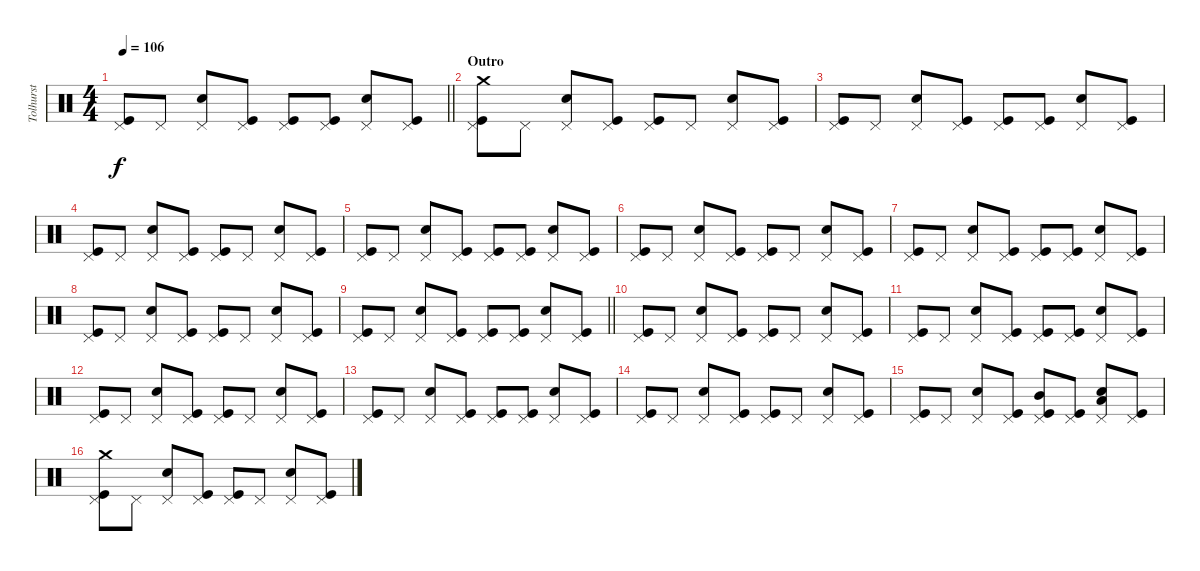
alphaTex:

\track ("Tolhurst" "Tolhurst") {instrument percussion}
\staff {score}
\articulation defaults
\ts (4 4)
\tempo 106
\clef neutral
\barLineRight lightlight
\ks c
("Pedal Hi-Hat (hit)" "Kick (hit)").8{dy f} "Pedal Hi-Hat (hit)".8 ("Pedal Hi-Hat (hit)" "Snare (hit) 2").8 ("Pedal Hi-Hat (hit)" "Kick (hit)").8 ("Pedal Hi-Hat (hit)" "Kick (hit)").8 ("Pedal Hi-Hat (hit)" "Kick (hit)").8 ("Pedal Hi-Hat (hit)" "Snare (hit) 2").8 ("Pedal Hi-Hat (hit)" "Kick (hit)").8 |
\section ("" "Outro")
("Crash medium (hit)" "Pedal Hi-Hat (hit)" "Kick (hit)").8 "Pedal Hi-Hat (hit)".8 ("Pedal Hi-Hat (hit)" "Snare (hit) 2").8 ("Pedal Hi-Hat (hit)" "Kick (hit)").8 ("Pedal Hi-Hat (hit)" "Kick (hit)").8 "Pedal Hi-Hat (hit)".8 ("Pedal Hi-Hat (hit)" "Snare (hit) 2").8 ("Pedal Hi-Hat (hit)" "Kick (hit)").8 |
("Pedal Hi-Hat (hit)" "Kick (hit)").8 "Pedal Hi-Hat (hit)".8 ("Pedal Hi-Hat (hit)" "Snare (hit) 2").8 ("Pedal Hi-Hat (hit)" "Kick (hit)").8 ("Pedal Hi-Hat (hit)" "Kick (hit)").8 ("Pedal Hi-Hat (hit)" "Kick (hit)").8 ("Pedal Hi-Hat (hit)" "Snare (hit) 2").8 ("Pedal Hi-Hat (hit)" "Kick (hit)").8 |
("Pedal Hi-Hat (hit)" "Kick (hit)").8 "Pedal Hi-Hat (hit)".8 ("Pedal Hi-Hat (hit)" "Snare (hit) 2").8 ("Pedal Hi-Hat (hit)" "Kick (hit)").8 ("Pedal Hi-Hat (hit)" "Kick (hit)").8 "Pedal Hi-Hat (hit)".8 ("Pedal Hi-Hat (hit)" "Snare (hit) 2").8 ("Pedal Hi-Hat (hit)" "Kick (hit)").8 |
("Pedal Hi-Hat (hit)" "Kick (hit)").8 "Pedal Hi-Hat (hit)".8 ("Pedal Hi-Hat (hit)" "Snare (hit) 2").8 ("Pedal Hi-Hat (hit)" "Kick (hit)").8 ("Pedal Hi-Hat (hit)" "Kick (hit)").8 ("Pedal Hi-Hat (hit)" "Kick (hit)").8 ("Pedal Hi-Hat (hit)" "Snare (hit) 2").8 ("Pedal Hi-Hat (hit)" "Kick (hit)").8 |
("Pedal Hi-Hat (hit)" "Kick (hit)").8 "Pedal Hi-Hat (hit)".8 ("Pedal Hi-Hat (hit)" "Snare (hit) 2").8 ("Pedal Hi-Hat (hit)" "Kick (hit)").8 ("Pedal Hi-Hat (hit)" "Kick (hit)").8 "Pedal Hi-Hat (hit)".8 ("Pedal Hi-Hat (hit)" "Snare (hit) 2").8 ("Pedal Hi-Hat (hit)" "Kick (hit)").8 |
("Pedal Hi-Hat (hit)" "Kick (hit)").8 "Pedal Hi-Hat (hit)".8 ("Pedal Hi-Hat (hit)" "Snare (hit) 2").8 ("Pedal Hi-Hat (hit)" "Kick (hit)").8 ("Pedal Hi-Hat (hit)" "Kick (hit)").8 ("Pedal Hi-Hat (hit)" "Kick (hit)").8 ("Pedal Hi-Hat (hit)" "Snare (hit) 2").8 ("Pedal Hi-Hat (hit)" "Kick (hit)").8 |
("Pedal Hi-Hat (hit)" "Kick (hit)").8 "Pedal Hi-Hat (hit)".8 ("Pedal Hi-Hat (hit)" "Snare (hit) 2").8 ("Pedal Hi-Hat (hit)" "Kick (hit)").8 ("Pedal Hi-Hat (hit)" "Kick (hit)").8 "Pedal Hi-Hat (hit)".8 ("Pedal Hi-Hat (hit)" "Snare (hit) 2").8 ("Pedal Hi-Hat (hit)" "Kick (hit)").8 |
\barLineRight lightlight
("Pedal Hi-Hat (hit)" "Kick (hit)").8 "Pedal Hi-Hat (hit)".8 ("Pedal Hi-Hat (hit)" "Snare (hit) 2").8 ("Pedal Hi-Hat (hit)" "Kick (hit)").8 ("Pedal Hi-Hat (hit)" "Kick (hit)").8 ("Pedal Hi-Hat (hit)" "Kick (hit)").8 ("Pedal Hi-Hat (hit)" "Snare (hit) 2").8 ("Pedal Hi-Hat (hit)" "Kick (hit)").8 |
("Pedal Hi-Hat (hit)" "Kick (hit)").8 "Pedal Hi-Hat (hit)".8 ("Pedal Hi-Hat (hit)" "Snare (hit) 2").8 ("Pedal Hi-Hat (hit)" "Kick (hit)").8 ("Pedal Hi-Hat (hit)" "Kick (hit)").8 "Pedal Hi-Hat (hit)".8 ("Pedal Hi-Hat (hit)" "Snare (hit) 2").8 ("Pedal Hi-Hat (hit)" "Kick (hit)").8 |
("Pedal Hi-Hat (hit)" "Kick (hit)").8 "Pedal Hi-Hat (hit)".8 ("Pedal Hi-Hat (hit)" "Snare (hit) 2").8 ("Pedal Hi-Hat (hit)" "Kick (hit)").8 ("Pedal Hi-Hat (hit)" "Kick (hit)").8 ("Pedal Hi-Hat (hit)" "Kick (hit)").8 ("Pedal Hi-Hat (hit)" "Snare (hit) 2").8 ("Pedal Hi-Hat (hit)" "Kick (hit)").8 |
("Pedal Hi-Hat (hit)" "Kick (hit)").8 "Pedal Hi-Hat (hit)".8 ("Pedal Hi-Hat (hit)" "Snare (hit) 2").8 ("Pedal Hi-Hat (hit)" "Kick (hit)").8 ("Pedal Hi-Hat (hit)" "Kick (hit)").8 "Pedal Hi-Hat (hit)".8 ("Pedal Hi-Hat (hit)" "Snare (hit) 2").8 ("Pedal Hi-Hat (hit)" "Kick (hit)").8 |
("Pedal Hi-Hat (hit)" "Kick (hit)").8 "Pedal Hi-Hat (hit)".8 ("Pedal Hi-Hat (hit)" "Snare (hit) 2").8 ("Pedal Hi-Hat (hit)" "Kick (hit)").8 ("Pedal Hi-Hat (hit)" "Kick (hit)").8 ("Pedal Hi-Hat (hit)" "Kick (hit)").8 ("Pedal Hi-Hat (hit)" "Snare (hit) 2").8 ("Pedal Hi-Hat (hit)" "Kick (hit)").8 |
("Pedal Hi-Hat (hit)" "Kick (hit)").8 "Pedal Hi-Hat (hit)".8 ("Pedal Hi-Hat (hit)" "Snare (hit) 2").8 ("Pedal Hi-Hat (hit)" "Kick (hit)").8 ("Pedal Hi-Hat (hit)" "Kick (hit)").8 "Pedal Hi-Hat (hit)".8 ("Pedal Hi-Hat (hit)" "Snare (hit) 2").8 ("Pedal Hi-Hat (hit)" "Kick (hit)").8 |
("Pedal Hi-Hat (hit)" "Kick (hit)").8 "Pedal Hi-Hat (hit)".8 ("Pedal Hi-Hat (hit)" "Snare (hit) 2").8 ("Pedal Hi-Hat (hit)" "Kick (hit)").8 ("Mid Tom (hit)" "Pedal Hi-Hat (hit)" "Kick (hit)").8 ("Pedal Hi-Hat (hit)" "Kick (hit)").8 ("Low Tom (hit)" "Pedal Hi-Hat (hit)" "Snare (hit) 2").8 ("Pedal Hi-Hat (hit)" "Kick (hit)").8 |
("Crash medium (hit)" "Pedal Hi-Hat (hit)" "Kick (hit)").8 "Pedal Hi-Hat (hit)".8 ("Pedal Hi-Hat (hit)" "Snare (hit) 2").8 ("Pedal Hi-Hat (hit)" "Kick (hit)").8 ("Pedal Hi-Hat (hit)" "Kick (hit)").8 "Pedal Hi-Hat (hit)".8 ("Pedal Hi-Hat (hit)" "Snare (hit) 2").8 ("Pedal Hi-Hat (hit)" "Kick (hit)").8
